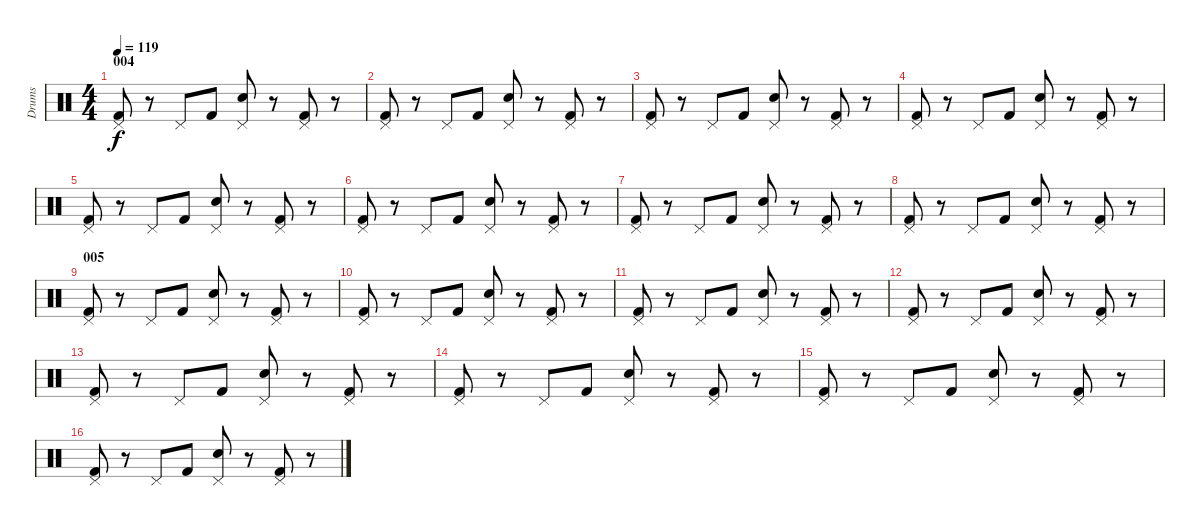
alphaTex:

\track ("Drums" "Drums") {instrument percussion}
\staff {score}
\articulation defaults
\ts (4 4)
\section ("" "004")
\tempo 119
\clef neutral
\ks c
("Kick (hit) 2" "Pedal Hi-Hat (hit)").8{dy f} r.8 "Pedal Hi-Hat (hit)".8 "Kick (hit) 2".8 ("Electric Snare (hit)" "Pedal Hi-Hat (hit)").8 r.8 ("Kick (hit) 2" "Pedal Hi-Hat (hit)").8 r.8 |
("Kick (hit) 2" "Pedal Hi-Hat (hit)").8 r.8 "Pedal Hi-Hat (hit)".8 "Kick (hit) 2".8 ("Electric Snare (hit)" "Pedal Hi-Hat (hit)").8 r.8 ("Kick (hit) 2" "Pedal Hi-Hat (hit)").8 r.8 |
("Kick (hit) 2" "Pedal Hi-Hat (hit)").8 r.8 "Pedal Hi-Hat (hit)".8 "Kick (hit) 2".8 ("Electric Snare (hit)" "Pedal Hi-Hat (hit)").8 r.8 ("Kick (hit) 2" "Pedal Hi-Hat (hit)").8 r.8 |
("Kick (hit) 2" "Pedal Hi-Hat (hit)").8 r.8 "Pedal Hi-Hat (hit)".8 "Kick (hit) 2".8 ("Electric Snare (hit)" "Pedal Hi-Hat (hit)").8 r.8 ("Kick (hit) 2" "Pedal Hi-Hat (hit)").8 r.8 |
("Kick (hit) 2" "Pedal Hi-Hat (hit)").8 r.8 "Pedal Hi-Hat (hit)".8 "Kick (hit) 2".8 ("Electric Snare (hit)" "Pedal Hi-Hat (hit)").8 r.8 ("Kick (hit) 2" "Pedal Hi-Hat (hit)").8 r.8 |
("Kick (hit) 2" "Pedal Hi-Hat (hit)").8 r.8 "Pedal Hi-Hat (hit)".8 "Kick (hit) 2".8 ("Electric Snare (hit)" "Pedal Hi-Hat (hit)").8 r.8 ("Kick (hit) 2" "Pedal Hi-Hat (hit)").8 r.8 |
("Kick (hit) 2" "Pedal Hi-Hat (hit)").8 r.8 "Pedal Hi-Hat (hit)".8 "Kick (hit) 2".8 ("Electric Snare (hit)" "Pedal Hi-Hat (hit)").8 r.8 ("Kick (hit) 2" "Pedal Hi-Hat (hit)").8 r.8 |
("Kick (hit) 2" "Pedal Hi-Hat (hit)").8 r.8 "Pedal Hi-Hat (hit)".8 "Kick (hit) 2".8 ("Electric Snare (hit)" "Pedal Hi-Hat (hit)").8 r.8 ("Kick (hit) 2" "Pedal Hi-Hat (hit)").8 r.8 |
\section ("" "005")
("Kick (hit) 2" "Pedal Hi-Hat (hit)").8 r.8 "Pedal Hi-Hat (hit)".8 "Kick (hit) 2".8 ("Electric Snare (hit)" "Pedal Hi-Hat (hit)").8 r.8 ("Kick (hit) 2" "Pedal Hi-Hat (hit)").8 r.8 |
("Kick (hit) 2" "Pedal Hi-Hat (hit)").8 r.8 "Pedal Hi-Hat (hit)".8 "Kick (hit) 2".8 ("Electric Snare (hit)" "Pedal Hi-Hat (hit)").8 r.8 ("Kick (hit) 2" "Pedal Hi-Hat (hit)").8 r.8 |
("Kick (hit) 2" "Pedal Hi-Hat (hit)").8 r.8 "Pedal Hi-Hat (hit)".8 "Kick (hit) 2".8 ("Electric Snare (hit)" "Pedal Hi-Hat (hit)").8 r.8 ("Kick (hit) 2" "Pedal Hi-Hat (hit)").8 r.8 |
("Kick (hit) 2" "Pedal Hi-Hat (hit)").8 r.8 "Pedal Hi-Hat (hit)".8 "Kick (hit) 2".8 ("Electric Snare (hit)" "Pedal Hi-Hat (hit)").8 r.8 ("Kick (hit) 2" "Pedal Hi-Hat (hit)").8 r.8 |
("Kick (hit) 2" "Pedal Hi-Hat (hit)").8 r.8 "Pedal Hi-Hat (hit)".8 "Kick (hit) 2".8 ("Electric Snare (hit)" "Pedal Hi-Hat (hit)").8 r.8 ("Kick (hit) 2" "Pedal Hi-Hat (hit)").8 r.8 |
("Kick (hit) 2" "Pedal Hi-Hat (hit)").8 r.8 "Pedal Hi-Hat (hit)".8 "Kick (hit) 2".8 ("Electric Snare (hit)" "Pedal Hi-Hat (hit)").8 r.8 ("Kick (hit) 2" "Pedal Hi-Hat (hit)").8 r.8 |
("Kick (hit) 2" "Pedal Hi-Hat (hit)").8 r.8 "Pedal Hi-Hat (hit)".8 "Kick (hit) 2".8 ("Electric Snare (hit)" "Pedal Hi-Hat (hit)").8 r.8 ("Kick (hit) 2" "Pedal Hi-Hat (hit)").8 r.8 |
("Kick (hit) 2" "Pedal Hi-Hat (hit)").8 r.8 "Pedal Hi-Hat (hit)".8 "Kick (hit) 2".8 ("Electric Snare (hit)" "Pedal Hi-Hat (hit)").8 r.8 ("Kick (hit) 2" "Pedal Hi-Hat (hit)").8 r.8
